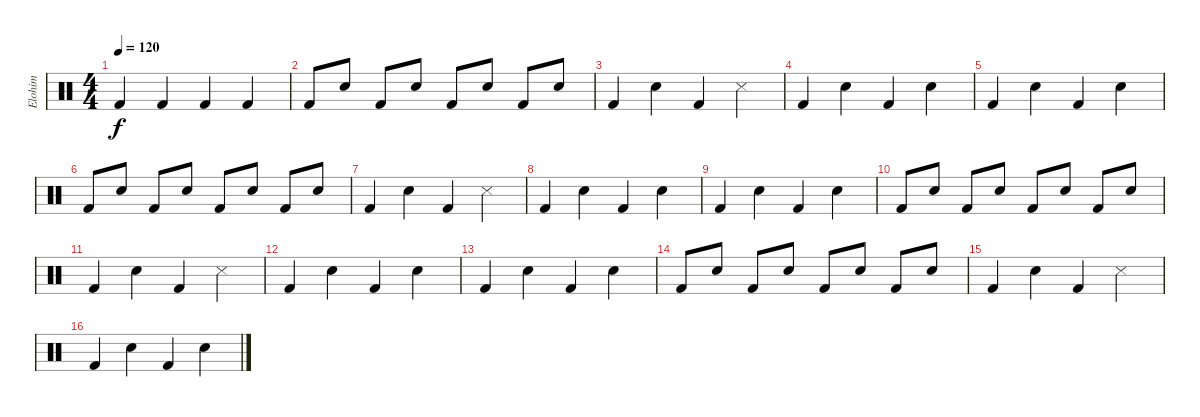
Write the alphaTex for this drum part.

\track ("Elohim" "Elohim") {instrument percussion}
\staff {score}
\articulation defaults
\ts (4 4)
\tempo 120
\clef neutral
\ks c "Kick (hit) 2".4{dy f} "Kick (hit) 2".4 "Kick (hit) 2".4 "Kick (hit) 2".4
|
"Kick (hit) 2".8 "Snare (hit) 2".8 "Kick (hit) 2".8 "Snare (hit) 2".8 "Kick (hit) 2".8 "Snare (hit) 2".8 "Kick (hit) 2".8 "Snare (hit) 2".8 |
"Kick (hit) 2".4 "Snare (hit) 2".4 "Kick (hit) 2".4 "Snare (side stick) 3".4 |
"Kick (hit) 2".4 "Snare (hit) 2".4 "Kick (hit) 2".4 "Snare (hit) 2".4 |
"Kick (hit) 2".4 "Snare (hit) 2".4 "Kick (hit) 2".4 "Snare (hit) 2".4 |
"Kick (hit) 2".8 "Snare (hit) 2".8 "Kick (hit) 2".8 "Snare (hit) 2".8 "Kick (hit) 2".8 "Snare (hit) 2".8 "Kick (hit) 2".8 "Snare (hit) 2".8 |
"Kick (hit) 2".4 "Snare (hit) 2".4 "Kick (hit) 2".4 "Snare (side stick) 3".4 |
"Kick (hit) 2".4 "Snare (hit) 2".4 "Kick (hit) 2".4 "Snare (hit) 2".4 |
"Kick (hit) 2".4 "Snare (hit) 2".4 "Kick (hit) 2".4 "Snare (hit) 2".4 |
"Kick (hit) 2".8 "Snare (hit) 2".8 "Kick (hit) 2".8 "Snare (hit) 2".8 "Kick (hit) 2".8 "Snare (hit) 2".8 "Kick (hit) 2".8 "Snare (hit) 2".8 |
"Kick (hit) 2".4 "Snare (hit) 2".4 "Kick (hit) 2".4 "Snare (side stick) 3".4 |
"Kick (hit) 2".4 "Snare (hit) 2".4 "Kick (hit) 2".4 "Snare (hit) 2".4 |
"Kick (hit) 2".4 "Snare (hit) 2".4 "Kick (hit) 2".4 "Snare (hit) 2".4 |
"Kick (hit) 2".8 "Snare (hit) 2".8 "Kick (hit) 2".8 "Snare (hit) 2".8 "Kick (hit) 2".8 "Snare (hit) 2".8 "Kick (hit) 2".8 "Snare (hit) 2".8 |
"Kick (hit) 2".4 "Snare (hit) 2".4 "Kick (hit) 2".4 "Snare (side stick) 3".4 |
"Kick (hit) 2".4 "Snare (hit) 2".4 "Kick (hit) 2".4 "Snare (hit) 2".4
